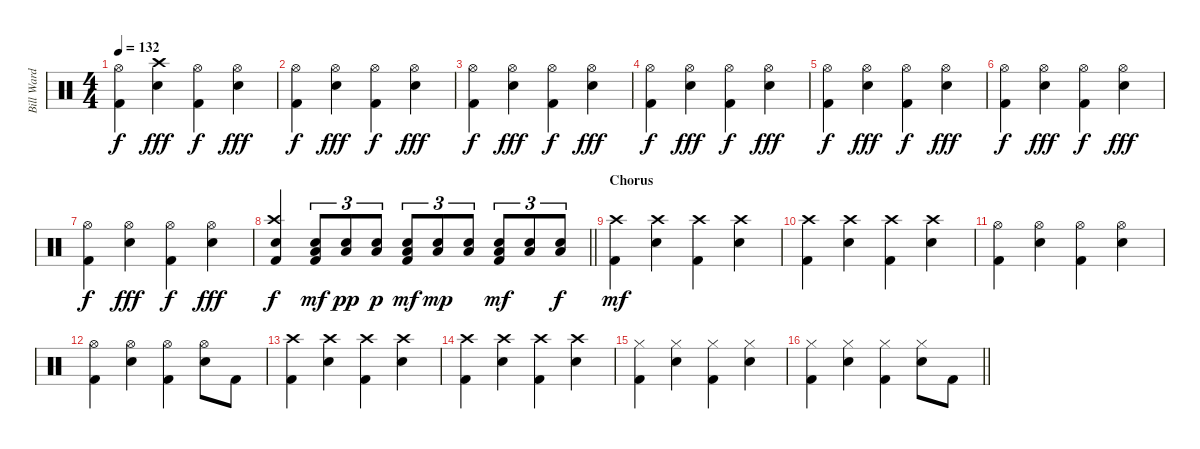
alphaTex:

\track ("Bill Ward" "Bill Ward") {instrument percussion}
\staff {score}
\articulation defaults
\ts (4 4)
\tempo 132
\clef neutral
\ks c
("Hi-Hat (open)" "Kick (hit) 2").4{dy f} ("Crash high (hit)" "Snare (hit) 2").4{dy fff} ("Hi-Hat (open)" "Kick (hit) 2").4{dy f} ("Hi-Hat (open)" "Snare (hit) 2").4{dy fff} |
("Hi-Hat (open)" "Kick (hit) 2").4{dy f} ("Hi-Hat (open)" "Snare (hit) 2").4{dy fff} ("Hi-Hat (open)" "Kick (hit) 2").4{dy f} ("Hi-Hat (open)" "Snare (hit) 2").4{dy fff} |
("Hi-Hat (open)" "Kick (hit) 2").4{dy f} ("Hi-Hat (open)" "Snare (hit) 2").4{dy fff} ("Hi-Hat (open)" "Kick (hit) 2").4{dy f} ("Hi-Hat (open)" "Snare (hit) 2").4{dy fff} |
("Hi-Hat (open)" "Kick (hit) 2").4{dy f} ("Hi-Hat (open)" "Snare (hit) 2").4{dy fff} ("Hi-Hat (open)" "Kick (hit) 2").4{dy f} ("Hi-Hat (open)" "Snare (hit) 2").4{dy fff} |
("Hi-Hat (open)" "Kick (hit) 2").4{dy f} ("Hi-Hat (open)" "Snare (hit) 2").4{dy fff} ("Hi-Hat (open)" "Kick (hit) 2").4{dy f} ("Hi-Hat (open)" "Snare (hit) 2").4{dy fff} |
("Hi-Hat (open)" "Kick (hit) 2").4{dy f} ("Hi-Hat (open)" "Snare (hit) 2").4{dy fff} ("Hi-Hat (open)" "Kick (hit) 2").4{dy f} ("Hi-Hat (open)" "Snare (hit) 2").4{dy fff} |
("Hi-Hat (open)" "Kick (hit) 2").4{dy f} ("Hi-Hat (open)" "Snare (hit) 2").4{dy fff} ("Hi-Hat (open)" "Kick (hit) 2").4{dy f} ("Hi-Hat (open)" "Snare (hit) 2").4{dy fff} |
\barLineRight lightlight
("Crash high (hit)" "Snare (hit) 2" "Kick (hit) 2").4{dy f} ("Snare (hit) 2" "Low Tom (hit)" "Kick (hit) 2").8{tu (3 2) dy mf} ("Snare (hit) 2" "Low Tom (hit)").8{tu (3 2) dy pp} ("Snare (hit) 2" "Low Tom (hit)").8{tu (3 2) dy p} ("Snare (hit) 2" "Low Tom (hit)" "Kick (hit) 2").8{tu (3 2) dy mf} ("Snare (hit) 2" "Low Tom (hit)").8{tu (3 2) dy mp} ("Snare (hit) 2" "Low Tom (hit)").8{tu (3 2)} ("Snare (hit) 2" "Low Tom (hit)" "Kick (hit) 2").8{tu (3 2) dy mf} ("Snare (hit) 2" "Low Tom (hit)").8{tu (3 2)} ("Snare (hit) 2" "Low Tom (hit)").8{tu (3 2) dy f} |
\section ("" "Chorus")
("Crash high (hit)" "Kick (hit) 2").4{dy mf} ("Crash high (hit)" "Snare (hit) 2").4 ("Crash high (hit)" "Kick (hit) 2").4 ("Crash high (hit)" "Snare (hit) 2").4 |
("Crash high (hit)" "Kick (hit) 2").4 ("Crash high (hit)" "Snare (hit) 2").4 ("Crash high (hit)" "Kick (hit) 2").4 ("Crash high (hit)" "Snare (hit) 2").4 |
("Hi-Hat (open)" "Kick (hit) 2").4 ("Hi-Hat (open)" "Snare (hit) 2").4 ("Hi-Hat (open)" "Kick (hit) 2").4 ("Hi-Hat (open)" "Snare (hit) 2").4 |
("Hi-Hat (open)" "Kick (hit) 2").4 ("Hi-Hat (open)" "Snare (hit) 2").4 ("Hi-Hat (open)" "Kick (hit) 2").4 ("Hi-Hat (open)" "Snare (hit) 2").8 "Kick (hit) 2".8 |
("Crash high (hit)" "Kick (hit) 2").4 ("Crash high (hit)" "Snare (hit) 2").4 ("Crash high (hit)" "Kick (hit) 2").4 ("Crash high (hit)" "Snare (hit) 2").4 |
("Crash high (hit)" "Kick (hit) 2").4 ("Crash high (hit)" "Snare (hit) 2").4 ("Crash high (hit)" "Kick (hit) 2").4 ("Crash high (hit)" "Snare (hit) 2").4 |
("Hi-Hat (closed)" "Kick (hit) 2").4 ("Hi-Hat (closed)" "Snare (hit) 2").4 ("Hi-Hat (closed)" "Kick (hit) 2").4 ("Hi-Hat (closed)" "Snare (hit) 2").4 |
\barLineRight lightlight
("Hi-Hat (closed)" "Kick (hit) 2").4 ("Hi-Hat (closed)" "Snare (hit) 2").4 ("Hi-Hat (closed)" "Kick (hit) 2").4 ("Hi-Hat (closed)" "Snare (hit) 2").8 "Kick (hit) 2".8
